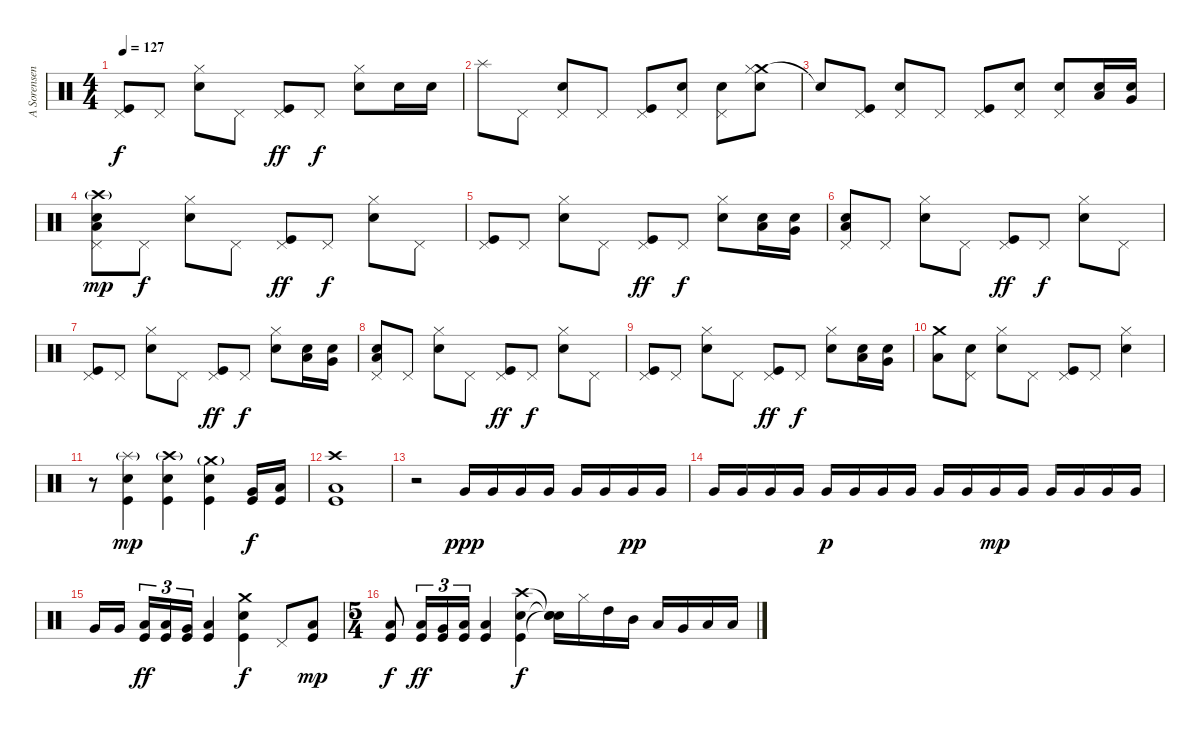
\track ("A Sorensen" "A Sorensen") {instrument percussion}
\staff {score}
\articulation defaults
\ts (4 4)
\tempo 127
\clef neutral
\ks c
("Pedal Hi-Hat (hit)" "Kick (hit)").8{dy f} "Pedal Hi-Hat (hit)".8 ("Electric Snare (hit)" "Hi-Hat (closed)").8 "Pedal Hi-Hat (hit)".8 ("Pedal Hi-Hat (hit)" "Kick (hit)").8{dy ff} "Pedal Hi-Hat (hit)".8{dy f} ("Electric Snare (hit)" "Hi-Hat (closed)").8 "Snare (hit) 2".16 "Electric Snare (hit)".16 |
"Splash (hit)".8 "Pedal Hi-Hat (hit)".8 ("Electric Snare (hit)" "Pedal Hi-Hat (hit)").8 "Pedal Hi-Hat (hit)".8 ("Pedal Hi-Hat (hit)" "Kick (hit)").8 ("Snare (hit) 2" "Pedal Hi-Hat (hit)").8 ("Snare (hit) 2" "Pedal Hi-Hat (hit)").8 ("Crash medium (hit)" "Electric Snare (hit)" "Hi-Hat (closed)").8 |
"Snare (hit)"{t}.8 ("Pedal Hi-Hat (hit)" "Kick (hit)").8 ("Electric Snare (hit)" "Pedal Hi-Hat (hit)").8 "Pedal Hi-Hat (hit)".8 ("Pedal Hi-Hat (hit)" "Kick (hit)").8 ("Electric Snare (hit)" "Pedal Hi-Hat (hit)").8 ("Electric Snare (hit)" "Pedal Hi-Hat (hit)").8 ("Low Floor Tom (hit)" "Snare (hit) 2").16 ("Very Low Tom (hit)" "Electric Snare (hit)").16 |
("Crash high (hit)"{g} "Low Floor Tom (hit)" "Snare (hit) 2" "Pedal Hi-Hat (hit)").8{dy mp} "Pedal Hi-Hat (hit)".8{dy f} ("Electric Snare (hit)" "Hi-Hat (closed)").8 "Pedal Hi-Hat (hit)".8 ("Pedal Hi-Hat (hit)" "Kick (hit)").8{dy ff} "Pedal Hi-Hat (hit)".8{dy f} ("Electric Snare (hit)" "Hi-Hat (closed)").8 "Pedal Hi-Hat (hit)".8 |
("Pedal Hi-Hat (hit)" "Kick (hit)").8 "Pedal Hi-Hat (hit)".8 ("Electric Snare (hit)" "Hi-Hat (closed)").8 "Pedal Hi-Hat (hit)".8 ("Pedal Hi-Hat (hit)" "Kick (hit)").8{dy ff} "Pedal Hi-Hat (hit)".8{dy f} ("Electric Snare (hit)" "Hi-Hat (closed)").8 ("Low Floor Tom (hit)" "Snare (hit) 2").16 ("Very Low Tom (hit)" "Electric Snare (hit)").16 |
("Low Floor Tom (hit)" "Snare (hit) 2" "Pedal Hi-Hat (hit)").8 "Pedal Hi-Hat (hit)".8 ("Electric Snare (hit)" "Hi-Hat (closed)").8 "Pedal Hi-Hat (hit)".8 ("Pedal Hi-Hat (hit)" "Kick (hit)").8{dy ff} "Pedal Hi-Hat (hit)".8{dy f} ("Electric Snare (hit)" "Hi-Hat (closed)").8 "Pedal Hi-Hat (hit)".8 |
("Pedal Hi-Hat (hit)" "Kick (hit)").8 "Pedal Hi-Hat (hit)".8 ("Electric Snare (hit)" "Hi-Hat (closed)").8 "Pedal Hi-Hat (hit)".8 ("Pedal Hi-Hat (hit)" "Kick (hit)").8{dy ff} "Pedal Hi-Hat (hit)".8{dy f} ("Electric Snare (hit)" "Hi-Hat (closed)").8 ("Low Floor Tom (hit)" "Snare (hit) 2").16 ("Very Low Tom (hit)" "Electric Snare (hit)").16 |
("Low Floor Tom (hit)" "Snare (hit) 2" "Pedal Hi-Hat (hit)").8 "Pedal Hi-Hat (hit)".8 ("Electric Snare (hit)" "Hi-Hat (closed)").8 "Pedal Hi-Hat (hit)".8 ("Pedal Hi-Hat (hit)" "Kick (hit)").8{dy ff} "Pedal Hi-Hat (hit)".8{dy f} ("Electric Snare (hit)" "Hi-Hat (closed)").8 "Pedal Hi-Hat (hit)".8 |
("Pedal Hi-Hat (hit)" "Kick (hit)").8 "Pedal Hi-Hat (hit)".8 ("Electric Snare (hit)" "Hi-Hat (closed)").8 "Pedal Hi-Hat (hit)".8 ("Pedal Hi-Hat (hit)" "Kick (hit)").8{dy ff} "Pedal Hi-Hat (hit)".8{dy f} ("Electric Snare (hit)" "Hi-Hat (closed)").8 ("Low Floor Tom (hit)" "Snare (hit) 2").16 ("Very Low Tom (hit)" "Electric Snare (hit)").16 |
("Crash medium (hit)" "Low Floor Tom (hit)").8 ("Snare (hit) 2" "Pedal Hi-Hat (hit)").8 ("Electric Snare (hit)" "Hi-Hat (closed)").8 "Pedal Hi-Hat (hit)".8 ("Pedal Hi-Hat (hit)" "Kick (hit)").8 "Pedal Hi-Hat (hit)".8 ("Electric Snare (hit)" "Hi-Hat (closed)").4 |
r.8 ("Splash (hit)"{g} "Electric Snare (hit)" "Kick (hit)").4{dy mp} ("Crash high (hit)"{g} "Electric Snare (hit)" "Kick (hit)").4 ("Crash medium (hit)"{g} "Electric Snare (hit)" "Kick (hit)").4 ("Very Low Tom (hit)" "Kick (hit)").16{dy f} ("Low Floor Tom (hit)" "Kick (hit)").16 |
("Crash high (hit)" "Low Floor Tom (hit)" "Kick (hit)").1 |
r.2 "Very Low Tom (hit)".16{dy ppp} "Very Low Tom (hit)".16 "Very Low Tom (hit)".16 "Very Low Tom (hit)".16 "Very Low Tom (hit)".16 "Very Low Tom (hit)".16 "Very Low Tom (hit)".16{dy pp} "Very Low Tom (hit)".16 |
"Very Low Tom (hit)".16 "Very Low Tom (hit)".16 "Very Low Tom (hit)".16 "Very Low Tom (hit)".16 "Very Low Tom (hit)".16{dy p} "Very Low Tom (hit)".16 "Very Low Tom (hit)".16 "Very Low Tom (hit)".16 "Very Low Tom (hit)".16 "Very Low Tom (hit)".16 "Very Low Tom (hit)".16{dy mp} "Very Low Tom (hit)".16 "Very Low Tom (hit)".16 "Very Low Tom (hit)".16 "Very Low Tom (hit)".16 "Very Low Tom (hit)".16 |
"Very Low Tom (hit)".16 "Very Low Tom (hit)".16 ("Low Floor Tom (hit)" "Kick (hit)").16{tu (3 2) dy ff} ("Low Floor Tom (hit)" "Kick (hit)").16{tu (3 2)} ("Very Low Tom (hit)" "Kick (hit)").16{tu (3 2)} ("Low Tom (hit)" "Kick (hit)").4 ("Crash medium (hit)" "Snare (hit) 2" "Kick (hit)").4{dy f} "Pedal Hi-Hat (hit)".8 ("Low Floor Tom (hit)" "Kick (hit)").8{dy mp} |
\ts (5 4)
("Low Floor Tom (hit)" "Kick (hit)").8{dy f} ("Low Tom (hit)" "Kick (hit)").16{tu (3 2) dy ff} ("Very Low Tom (hit)" "Kick (hit)").16{tu (3 2)} ("Low Floor Tom (hit)" "Kick (hit)").16{tu (3 2)} ("Low Floor Tom (hit)" "Kick (hit)").4 ("Crash high (hit)" "Electric Snare (hit)" "Kick (hit)").4{dy f} ("Snare (hit)"{t} "Snare (hit)"{t} "Snare (hit)"{t}).16 "Hi-Hat (closed)".16 "High Tom (hit)".16 "Mid Tom (hit)".16 "Low Tom (hit)".16 "Very Low Tom (hit)".16 "Low Floor Tom (hit)".16 "Low Floor Tom (hit)".16
